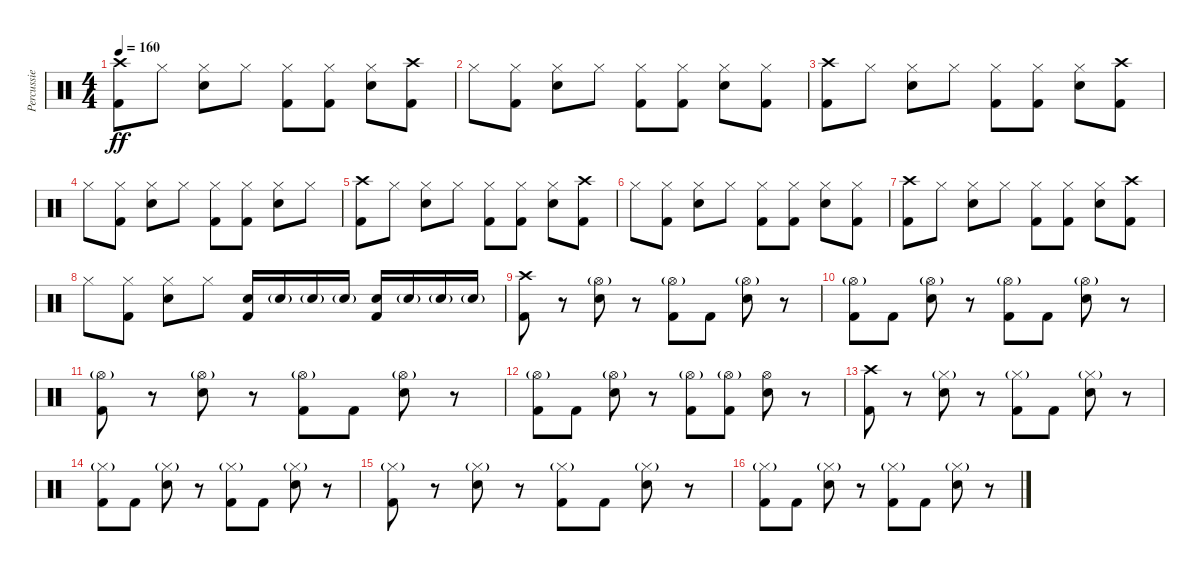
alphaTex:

\track ("Percussie" "Percussie") {instrument percussion}
\staff {score}
\articulation defaults
\ts (4 4)
\tempo 160
\clef neutral
\ks c
("Crash high (hit)" "Kick (hit) 2").8{dy ff} "Hi-Hat (closed)".8 ("Hi-Hat (closed)" "Snare (hit) 2").8 "Hi-Hat (closed)".8 ("Hi-Hat (closed)" "Kick (hit) 2").8 ("Hi-Hat (closed)" "Kick (hit) 2").8 ("Hi-Hat (closed)" "Snare (hit) 2").8 ("Crash high (hit)" "Kick (hit) 2").8 |
"Hi-Hat (closed)".8 ("Hi-Hat (closed)" "Kick (hit) 2").8 ("Hi-Hat (closed)" "Snare (hit) 2").8 "Hi-Hat (closed)".8 ("Hi-Hat (closed)" "Kick (hit) 2").8 ("Hi-Hat (closed)" "Kick (hit) 2").8 ("Hi-Hat (closed)" "Snare (hit) 2").8 ("Hi-Hat (closed)" "Kick (hit) 2").8 |
("Crash high (hit)" "Kick (hit) 2").8 "Hi-Hat (closed)".8 ("Hi-Hat (closed)" "Snare (hit) 2").8 "Hi-Hat (closed)".8 ("Hi-Hat (closed)" "Kick (hit) 2").8 ("Hi-Hat (closed)" "Kick (hit) 2").8 ("Hi-Hat (closed)" "Snare (hit) 2").8 ("Crash high (hit)" "Kick (hit) 2").8 |
"Hi-Hat (closed)".8 ("Hi-Hat (closed)" "Kick (hit) 2").8 ("Hi-Hat (closed)" "Snare (hit) 2").8 "Hi-Hat (closed)".8 ("Hi-Hat (closed)" "Kick (hit) 2").8 ("Hi-Hat (closed)" "Kick (hit) 2").8 ("Hi-Hat (closed)" "Snare (hit) 2").8 "Hi-Hat (closed)".8 |
("Crash high (hit)" "Kick (hit) 2").8 "Hi-Hat (closed)".8 ("Hi-Hat (closed)" "Snare (hit) 2").8 "Hi-Hat (closed)".8 ("Hi-Hat (closed)" "Kick (hit) 2").8 ("Hi-Hat (closed)" "Kick (hit) 2").8 ("Hi-Hat (closed)" "Snare (hit) 2").8 ("Crash high (hit)" "Kick (hit) 2").8 |
"Hi-Hat (closed)".8 ("Hi-Hat (closed)" "Kick (hit) 2").8 ("Hi-Hat (closed)" "Snare (hit) 2").8 "Hi-Hat (closed)".8 ("Hi-Hat (closed)" "Kick (hit) 2").8 ("Hi-Hat (closed)" "Kick (hit) 2").8 ("Hi-Hat (closed)" "Snare (hit) 2").8 ("Hi-Hat (closed)" "Kick (hit) 2").8 |
("Crash high (hit)" "Kick (hit) 2").8 "Hi-Hat (closed)".8 ("Hi-Hat (closed)" "Snare (hit) 2").8 "Hi-Hat (closed)".8 ("Hi-Hat (closed)" "Kick (hit) 2").8 ("Hi-Hat (closed)" "Kick (hit) 2").8 ("Hi-Hat (closed)" "Snare (hit) 2").8 ("Crash high (hit)" "Kick (hit) 2").8 |
"Hi-Hat (closed)".8 ("Hi-Hat (closed)" "Kick (hit) 2").8 ("Hi-Hat (closed)" "Snare (hit) 2").8 "Hi-Hat (closed)".8 ("Snare (hit) 2" "Kick (hit) 2").16 "Snare (hit) 2"{g}.16 "Snare (hit) 2"{g}.16 "Snare (hit) 2"{g}.16 ("Snare (hit) 2" "Kick (hit) 2").16 "Snare (hit) 2"{g}.16 "Snare (hit) 2"{g}.16 "Snare (hit) 2"{g}.16 |
("Crash high (hit)" "Kick (hit) 2").8 r.8 ("Hi-Hat (open)"{g} "Snare (hit) 2").8 r.8 ("Hi-Hat (open)"{g} "Kick (hit) 2").8 "Kick (hit) 2".8 ("Hi-Hat (open)"{g} "Snare (hit) 2").8 r.8 |
("Hi-Hat (open)"{g} "Kick (hit) 2").8 "Kick (hit) 2".8 ("Hi-Hat (open)"{g} "Snare (hit) 2").8 r.8 ("Hi-Hat (open)"{g} "Kick (hit) 2").8 "Kick (hit) 2".8 ("Hi-Hat (open)"{g} "Snare (hit) 2").8 r.8 |
("Hi-Hat (open)"{g} "Kick (hit) 2").8 r.8 ("Hi-Hat (open)"{g} "Snare (hit) 2").8 r.8 ("Hi-Hat (open)"{g} "Kick (hit) 2").8 "Kick (hit) 2".8 ("Hi-Hat (open)"{g} "Snare (hit) 2").8 r.8 |
("Hi-Hat (open)"{g} "Kick (hit) 2").8 "Kick (hit) 2".8 ("Hi-Hat (open)"{g} "Snare (hit) 2").8 r.8 ("Hi-Hat (open)"{g} "Kick (hit) 2").8 ("Hi-Hat (open)"{g} "Kick (hit) 2").8 ("Hi-Hat (open)" "Snare (hit) 2").8 r.8 |
("Crash high (hit)" "Kick (hit) 2").8 r.8 ("Hi-Hat (closed)"{g} "Snare (hit) 2").8 r.8 ("Hi-Hat (closed)"{g} "Kick (hit) 2").8 "Kick (hit) 2".8 ("Hi-Hat (closed)"{g} "Snare (hit) 2").8 r.8 |
("Hi-Hat (closed)"{g} "Kick (hit) 2").8 "Kick (hit) 2".8 ("Hi-Hat (closed)"{g} "Snare (hit) 2").8 r.8 ("Hi-Hat (closed)"{g} "Kick (hit) 2").8 "Kick (hit) 2".8 ("Hi-Hat (closed)"{g} "Snare (hit) 2").8 r.8 |
("Hi-Hat (closed)"{g} "Kick (hit) 2").8 r.8 ("Hi-Hat (closed)"{g} "Snare (hit) 2").8 r.8 ("Hi-Hat (closed)"{g} "Kick (hit) 2").8 "Kick (hit) 2".8 ("Hi-Hat (closed)"{g} "Snare (hit) 2").8 r.8 |
("Hi-Hat (closed)"{g} "Kick (hit) 2").8 "Kick (hit) 2".8 ("Hi-Hat (closed)"{g} "Snare (hit) 2").8 r.8 ("Hi-Hat (closed)"{g} "Kick (hit) 2").8 "Kick (hit) 2".8 ("Hi-Hat (closed)"{g} "Snare (hit) 2").8 r.8
